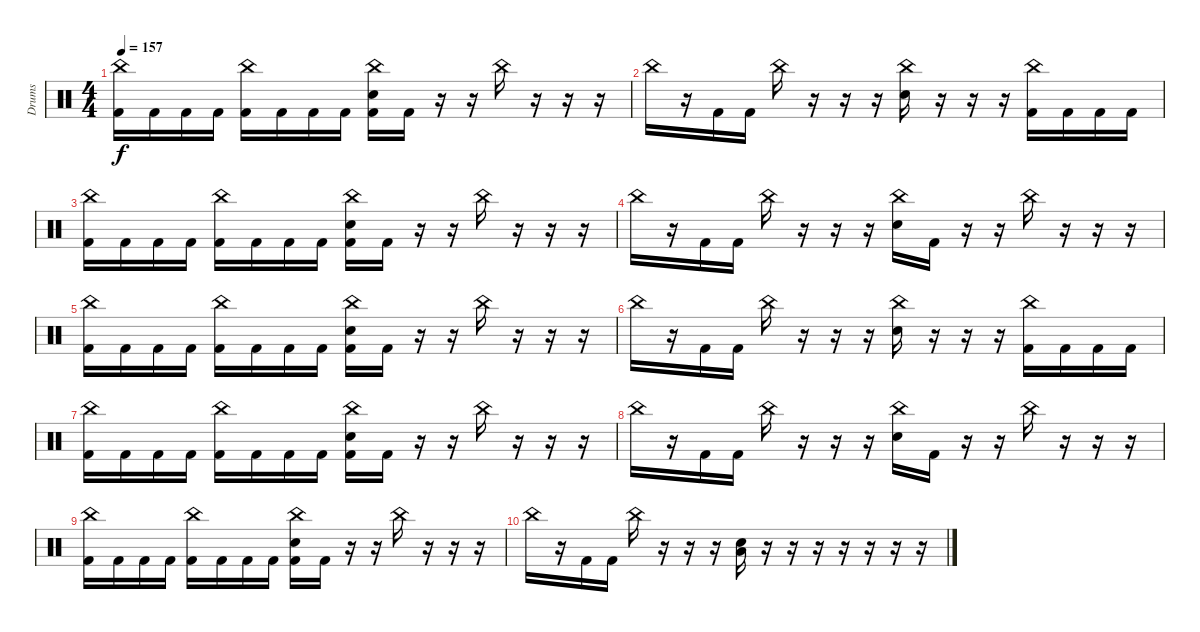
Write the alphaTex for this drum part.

\track ("Drums" "Drums") {instrument percussion}
\staff {score}
\articulation defaults
\ts (4 4)
\tempo 157
\clef neutral
\ks c
("China (hit)" "Kick (hit) 2").16{dy f} "Kick (hit) 2".16 "Kick (hit) 2".16 "Kick (hit) 2".16 ("China (hit)" "Kick (hit) 2").16 "Kick (hit) 2".16 "Kick (hit) 2".16 "Kick (hit) 2".16 ("China (hit)" "Electric Snare (hit)" "Kick (hit) 2").16 "Kick (hit) 2".16 r.16 r.16 "China (hit)".16 r.16 r.16 r.16 |
"China (hit)".16 r.16 "Kick (hit) 2".16 "Kick (hit) 2".16 "China (hit)".16 r.16 r.16 r.16 ("China (hit)" "Electric Snare (hit)").16 r.16 r.16 r.16 ("China (hit)" "Kick (hit) 2").16 "Kick (hit) 2".16 "Kick (hit) 2".16 "Kick (hit) 2".16 |
("China (hit)" "Kick (hit) 2").16 "Kick (hit) 2".16 "Kick (hit) 2".16 "Kick (hit) 2".16 ("China (hit)" "Kick (hit) 2").16 "Kick (hit) 2".16 "Kick (hit) 2".16 "Kick (hit) 2".16 ("China (hit)" "Electric Snare (hit)" "Kick (hit) 2").16 "Kick (hit) 2".16 r.16 r.16 "China (hit)".16 r.16 r.16 r.16 |
"China (hit)".16 r.16 "Kick (hit) 2".16 "Kick (hit) 2".16 "China (hit)".16 r.16 r.16 r.16 ("China (hit)" "Electric Snare (hit)").16 "Kick (hit) 2".16 r.16 r.16 "China (hit)".16 r.16 r.16 r.16 |
("China (hit)" "Kick (hit) 2").16 "Kick (hit) 2".16 "Kick (hit) 2".16 "Kick (hit) 2".16 ("China (hit)" "Kick (hit) 2").16 "Kick (hit) 2".16 "Kick (hit) 2".16 "Kick (hit) 2".16 ("China (hit)" "Electric Snare (hit)" "Kick (hit) 2").16 "Kick (hit) 2".16 r.16 r.16 "China (hit)".16 r.16 r.16 r.16 |
"China (hit)".16 r.16 "Kick (hit) 2".16 "Kick (hit) 2".16 "China (hit)".16 r.16 r.16 r.16 ("China (hit)" "Electric Snare (hit)").16 r.16 r.16 r.16 ("China (hit)" "Kick (hit) 2").16 "Kick (hit) 2".16 "Kick (hit) 2".16 "Kick (hit) 2".16 |
("China (hit)" "Kick (hit) 2").16 "Kick (hit) 2".16 "Kick (hit) 2".16 "Kick (hit) 2".16 ("China (hit)" "Kick (hit) 2").16 "Kick (hit) 2".16 "Kick (hit) 2".16 "Kick (hit) 2".16 ("China (hit)" "Electric Snare (hit)" "Kick (hit) 2").16 "Kick (hit) 2".16 r.16 r.16 "China (hit)".16 r.16 r.16 r.16 |
"China (hit)".16 r.16 "Kick (hit) 2".16 "Kick (hit) 2".16 "China (hit)".16 r.16 r.16 r.16 ("China (hit)" "Electric Snare (hit)").16 "Kick (hit) 2".16 r.16 r.16 "China (hit)".16 r.16 r.16 r.16 |
("China (hit)" "Kick (hit) 2").16 "Kick (hit) 2".16 "Kick (hit) 2".16 "Kick (hit) 2".16 ("China (hit)" "Kick (hit) 2").16 "Kick (hit) 2".16 "Kick (hit) 2".16 "Kick (hit) 2".16 ("China (hit)" "Electric Snare (hit)" "Kick (hit) 2").16 "Kick (hit) 2".16 r.16 r.16 "China (hit)".16 r.16 r.16 r.16 |
"China (hit)".16 r.16 "Kick (hit) 2".16 "Kick (hit) 2".16 "China (hit)".16 r.16 r.16 r.16 ("Low Floor Tom (hit)" "Electric Snare (hit)").16 r.16 r.16 r.16 r.16 r.16 r.16 r.16
